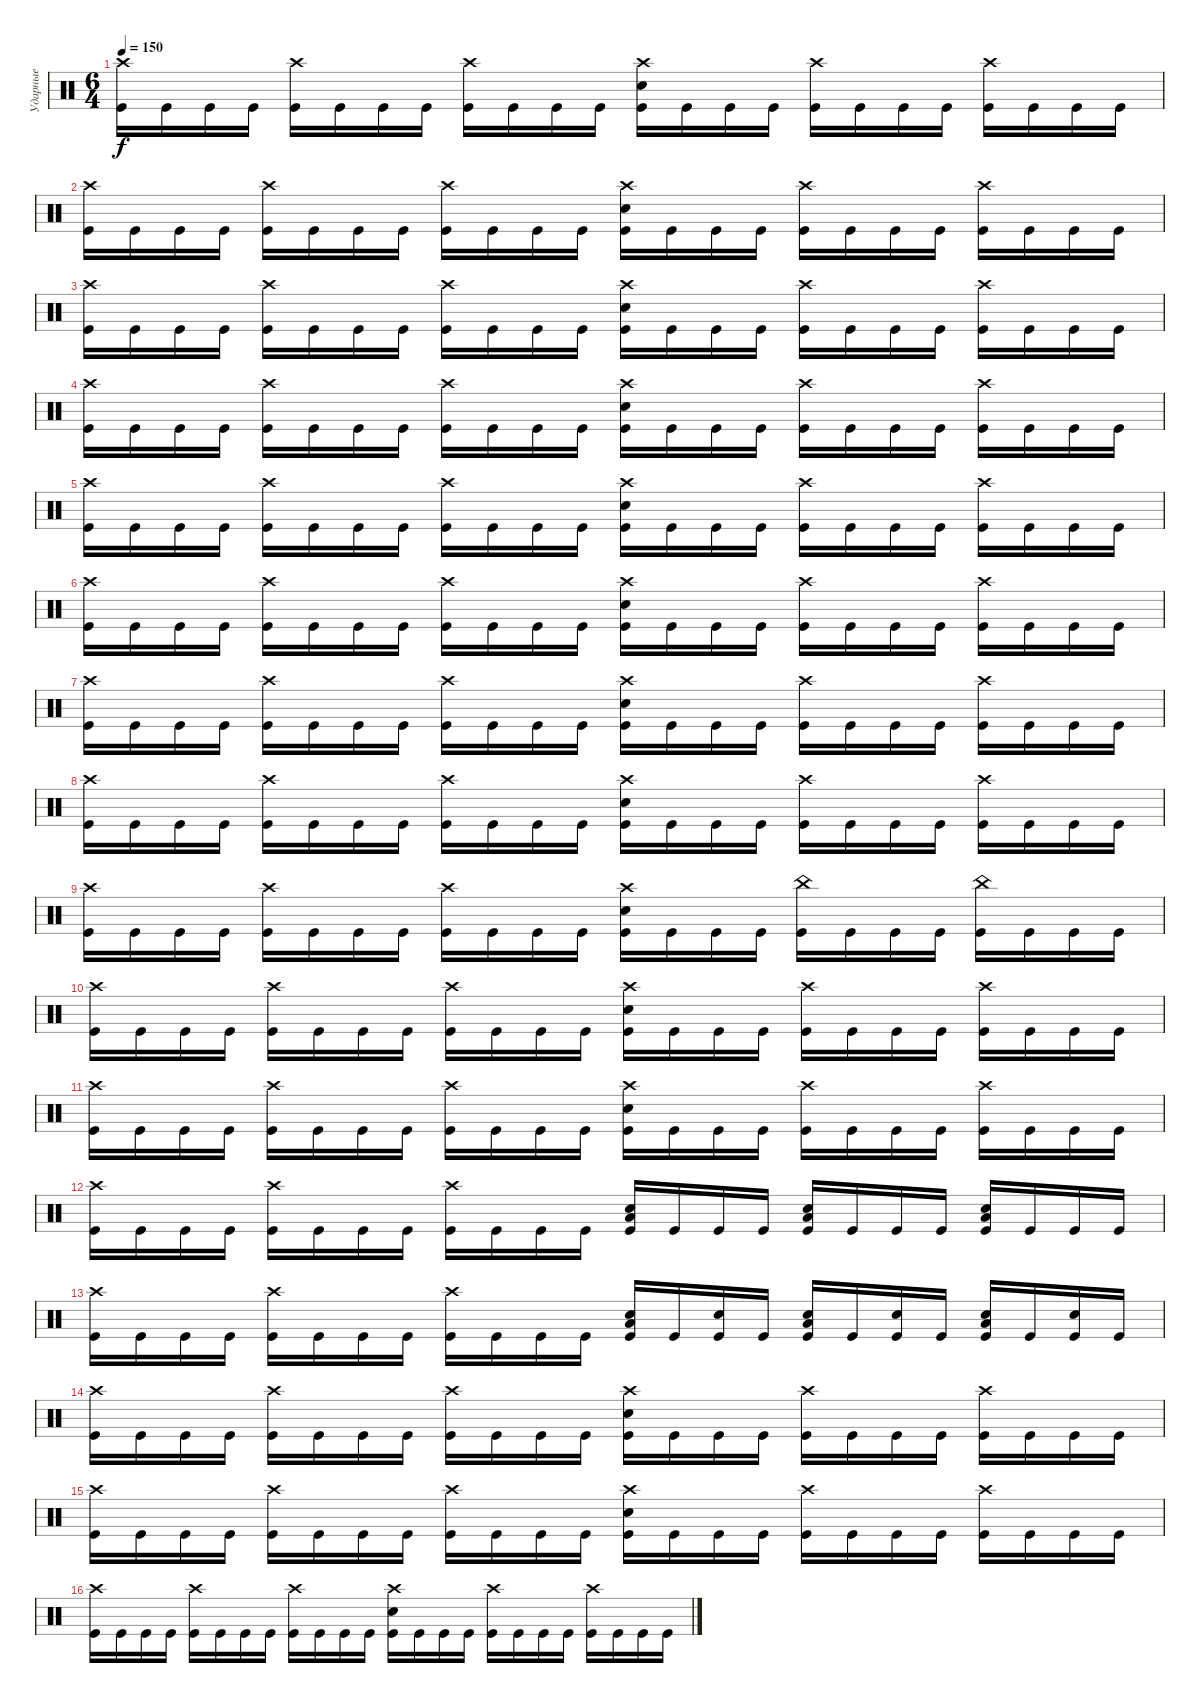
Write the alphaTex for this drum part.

\track ("Ударные" "Ударные") {instrument percussion}
\staff {score}
\articulation defaults
\ts (6 4)
\tempo 150
\clef neutral
\ks c
("Crash high (hit)" "Kick (hit)").16{dy f} "Kick (hit)".16 "Kick (hit)".16 "Kick (hit)".16 ("Crash high (hit)" "Kick (hit)").16 "Kick (hit)".16 "Kick (hit)".16 "Kick (hit)".16 ("Crash high (hit)" "Kick (hit)").16 "Kick (hit)".16 "Kick (hit)".16 "Kick (hit)".16 ("Crash high (hit)" "Snare (hit) 2" "Kick (hit)").16 "Kick (hit)".16 "Kick (hit)".16 "Kick (hit)".16 ("Crash high (hit)" "Kick (hit)").16 "Kick (hit)".16 "Kick (hit)".16 "Kick (hit)".16 ("Crash high (hit)" "Kick (hit)").16 "Kick (hit)".16 "Kick (hit)".16 "Kick (hit)".16 |
("Crash high (hit)" "Kick (hit)").16 "Kick (hit)".16 "Kick (hit)".16 "Kick (hit)".16 ("Crash high (hit)" "Kick (hit)").16 "Kick (hit)".16 "Kick (hit)".16 "Kick (hit)".16 ("Crash high (hit)" "Kick (hit)").16 "Kick (hit)".16 "Kick (hit)".16 "Kick (hit)".16 ("Crash high (hit)" "Snare (hit) 2" "Kick (hit)").16 "Kick (hit)".16 "Kick (hit)".16 "Kick (hit)".16 ("Crash high (hit)" "Kick (hit)").16 "Kick (hit)".16 "Kick (hit)".16 "Kick (hit)".16 ("Crash high (hit)" "Kick (hit)").16 "Kick (hit)".16 "Kick (hit)".16 "Kick (hit)".16 |
("Crash high (hit)" "Kick (hit)").16 "Kick (hit)".16 "Kick (hit)".16 "Kick (hit)".16 ("Crash high (hit)" "Kick (hit)").16 "Kick (hit)".16 "Kick (hit)".16 "Kick (hit)".16 ("Crash high (hit)" "Kick (hit)").16 "Kick (hit)".16 "Kick (hit)".16 "Kick (hit)".16 ("Crash high (hit)" "Snare (hit) 2" "Kick (hit)").16 "Kick (hit)".16 "Kick (hit)".16 "Kick (hit)".16 ("Crash high (hit)" "Kick (hit)").16 "Kick (hit)".16 "Kick (hit)".16 "Kick (hit)".16 ("Crash high (hit)" "Kick (hit)").16 "Kick (hit)".16 "Kick (hit)".16 "Kick (hit)".16 |
("Crash high (hit)" "Kick (hit)").16 "Kick (hit)".16 "Kick (hit)".16 "Kick (hit)".16 ("Crash high (hit)" "Kick (hit)").16 "Kick (hit)".16 "Kick (hit)".16 "Kick (hit)".16 ("Crash high (hit)" "Kick (hit)").16 "Kick (hit)".16 "Kick (hit)".16 "Kick (hit)".16 ("Crash high (hit)" "Snare (hit) 2" "Kick (hit)").16 "Kick (hit)".16 "Kick (hit)".16 "Kick (hit)".16 ("Crash high (hit)" "Kick (hit)").16 "Kick (hit)".16 "Kick (hit)".16 "Kick (hit)".16 ("Crash high (hit)" "Kick (hit)").16 "Kick (hit)".16 "Kick (hit)".16 "Kick (hit)".16 |
("Crash high (hit)" "Kick (hit)").16 "Kick (hit)".16 "Kick (hit)".16 "Kick (hit)".16 ("Crash high (hit)" "Kick (hit)").16 "Kick (hit)".16 "Kick (hit)".16 "Kick (hit)".16 ("Crash high (hit)" "Kick (hit)").16 "Kick (hit)".16 "Kick (hit)".16 "Kick (hit)".16 ("Crash high (hit)" "Snare (hit) 2" "Kick (hit)").16 "Kick (hit)".16 "Kick (hit)".16 "Kick (hit)".16 ("Crash high (hit)" "Kick (hit)").16 "Kick (hit)".16 "Kick (hit)".16 "Kick (hit)".16 ("Crash high (hit)" "Kick (hit)").16 "Kick (hit)".16 "Kick (hit)".16 "Kick (hit)".16 |
("Crash high (hit)" "Kick (hit)").16 "Kick (hit)".16 "Kick (hit)".16 "Kick (hit)".16 ("Crash high (hit)" "Kick (hit)").16 "Kick (hit)".16 "Kick (hit)".16 "Kick (hit)".16 ("Crash high (hit)" "Kick (hit)").16 "Kick (hit)".16 "Kick (hit)".16 "Kick (hit)".16 ("Crash high (hit)" "Snare (hit) 2" "Kick (hit)").16 "Kick (hit)".16 "Kick (hit)".16 "Kick (hit)".16 ("Crash high (hit)" "Kick (hit)").16 "Kick (hit)".16 "Kick (hit)".16 "Kick (hit)".16 ("Crash high (hit)" "Kick (hit)").16 "Kick (hit)".16 "Kick (hit)".16 "Kick (hit)".16 |
("Crash high (hit)" "Kick (hit)").16 "Kick (hit)".16 "Kick (hit)".16 "Kick (hit)".16 ("Crash high (hit)" "Kick (hit)").16 "Kick (hit)".16 "Kick (hit)".16 "Kick (hit)".16 ("Crash high (hit)" "Kick (hit)").16 "Kick (hit)".16 "Kick (hit)".16 "Kick (hit)".16 ("Crash high (hit)" "Snare (hit) 2" "Kick (hit)").16 "Kick (hit)".16 "Kick (hit)".16 "Kick (hit)".16 ("Crash high (hit)" "Kick (hit)").16 "Kick (hit)".16 "Kick (hit)".16 "Kick (hit)".16 ("Crash high (hit)" "Kick (hit)").16 "Kick (hit)".16 "Kick (hit)".16 "Kick (hit)".16 |
("Crash high (hit)" "Kick (hit)").16 "Kick (hit)".16 "Kick (hit)".16 "Kick (hit)".16 ("Crash high (hit)" "Kick (hit)").16 "Kick (hit)".16 "Kick (hit)".16 "Kick (hit)".16 ("Crash high (hit)" "Kick (hit)").16 "Kick (hit)".16 "Kick (hit)".16 "Kick (hit)".16 ("Crash high (hit)" "Snare (hit) 2" "Kick (hit)").16 "Kick (hit)".16 "Kick (hit)".16 "Kick (hit)".16 ("Crash high (hit)" "Kick (hit)").16 "Kick (hit)".16 "Kick (hit)".16 "Kick (hit)".16 ("Crash high (hit)" "Kick (hit)").16 "Kick (hit)".16 "Kick (hit)".16 "Kick (hit)".16 |
("Crash high (hit)" "Kick (hit)").16 "Kick (hit)".16 "Kick (hit)".16 "Kick (hit)".16 ("Crash high (hit)" "Kick (hit)").16 "Kick (hit)".16 "Kick (hit)".16 "Kick (hit)".16 ("Crash high (hit)" "Kick (hit)").16 "Kick (hit)".16 "Kick (hit)".16 "Kick (hit)".16 ("Crash high (hit)" "Snare (hit) 2" "Kick (hit)").16 "Kick (hit)".16 "Kick (hit)".16 "Kick (hit)".16 ("China (hit)" "Kick (hit)").16 "Kick (hit)".16 "Kick (hit)".16 "Kick (hit)".16 ("China (hit)" "Kick (hit)").16 "Kick (hit)".16 "Kick (hit)".16 "Kick (hit)".16 |
("Crash high (hit)" "Kick (hit)").16 "Kick (hit)".16 "Kick (hit)".16 "Kick (hit)".16 ("Crash high (hit)" "Kick (hit)").16 "Kick (hit)".16 "Kick (hit)".16 "Kick (hit)".16 ("Crash high (hit)" "Kick (hit)").16 "Kick (hit)".16 "Kick (hit)".16 "Kick (hit)".16 ("Crash high (hit)" "Snare (hit) 2" "Kick (hit)").16 "Kick (hit)".16 "Kick (hit)".16 "Kick (hit)".16 ("Crash high (hit)" "Kick (hit)").16 "Kick (hit)".16 "Kick (hit)".16 "Kick (hit)".16 ("Crash high (hit)" "Kick (hit)").16 "Kick (hit)".16 "Kick (hit)".16 "Kick (hit)".16 |
("Crash high (hit)" "Kick (hit)").16 "Kick (hit)".16 "Kick (hit)".16 "Kick (hit)".16 ("Crash high (hit)" "Kick (hit)").16 "Kick (hit)".16 "Kick (hit)".16 "Kick (hit)".16 ("Crash high (hit)" "Kick (hit)").16 "Kick (hit)".16 "Kick (hit)".16 "Kick (hit)".16 ("Crash high (hit)" "Snare (hit) 2" "Kick (hit)").16 "Kick (hit)".16 "Kick (hit)".16 "Kick (hit)".16 ("Crash high (hit)" "Kick (hit)").16 "Kick (hit)".16 "Kick (hit)".16 "Kick (hit)".16 ("Crash high (hit)" "Kick (hit)").16 "Kick (hit)".16 "Kick (hit)".16 "Kick (hit)".16 |
("Crash high (hit)" "Kick (hit)").16 "Kick (hit)".16 "Kick (hit)".16 "Kick (hit)".16 ("Crash high (hit)" "Kick (hit)").16 "Kick (hit)".16 "Kick (hit)".16 "Kick (hit)".16 ("Crash high (hit)" "Kick (hit)").16 "Kick (hit)".16 "Kick (hit)".16 "Kick (hit)".16 ("Low Floor Tom (hit)" "Snare (hit) 2" "Kick (hit)").16 "Kick (hit)".16 "Kick (hit)".16 "Kick (hit)".16 ("Low Floor Tom (hit)" "Snare (hit) 2" "Kick (hit)").16 "Kick (hit)".16 "Kick (hit)".16 "Kick (hit)".16 ("Low Floor Tom (hit)" "Snare (hit) 2" "Kick (hit)").16 "Kick (hit)".16 "Kick (hit)".16 "Kick (hit)".16 |
("Crash high (hit)" "Kick (hit)").16 "Kick (hit)".16 "Kick (hit)".16 "Kick (hit)".16 ("Crash high (hit)" "Kick (hit)").16 "Kick (hit)".16 "Kick (hit)".16 "Kick (hit)".16 ("Crash high (hit)" "Kick (hit)").16 "Kick (hit)".16 "Kick (hit)".16 "Kick (hit)".16 ("Low Floor Tom (hit)" "Snare (hit) 2" "Kick (hit)").16 "Kick (hit)".16 ("Snare (hit) 2" "Kick (hit)").16 "Kick (hit)".16 ("Low Floor Tom (hit)" "Snare (hit) 2" "Kick (hit)").16 "Kick (hit)".16 ("Snare (hit) 2" "Kick (hit)").16 "Kick (hit)".16 ("Low Floor Tom (hit)" "Snare (hit) 2" "Kick (hit)").16 "Kick (hit)".16 ("Snare (hit) 2" "Kick (hit)").16 "Kick (hit)".16 |
("Crash high (hit)" "Kick (hit)").16 "Kick (hit)".16 "Kick (hit)".16 "Kick (hit)".16 ("Crash high (hit)" "Kick (hit)").16 "Kick (hit)".16 "Kick (hit)".16 "Kick (hit)".16 ("Crash high (hit)" "Kick (hit)").16 "Kick (hit)".16 "Kick (hit)".16 "Kick (hit)".16 ("Crash high (hit)" "Snare (hit) 2" "Kick (hit)").16 "Kick (hit)".16 "Kick (hit)".16 "Kick (hit)".16 ("Crash high (hit)" "Kick (hit)").16 "Kick (hit)".16 "Kick (hit)".16 "Kick (hit)".16 ("Crash high (hit)" "Kick (hit)").16 "Kick (hit)".16 "Kick (hit)".16 "Kick (hit)".16 |
("Crash high (hit)" "Kick (hit)").16 "Kick (hit)".16 "Kick (hit)".16 "Kick (hit)".16 ("Crash high (hit)" "Kick (hit)").16 "Kick (hit)".16 "Kick (hit)".16 "Kick (hit)".16 ("Crash high (hit)" "Kick (hit)").16 "Kick (hit)".16 "Kick (hit)".16 "Kick (hit)".16 ("Crash high (hit)" "Snare (hit) 2" "Kick (hit)").16 "Kick (hit)".16 "Kick (hit)".16 "Kick (hit)".16 ("Crash high (hit)" "Kick (hit)").16 "Kick (hit)".16 "Kick (hit)".16 "Kick (hit)".16 ("Crash high (hit)" "Kick (hit)").16 "Kick (hit)".16 "Kick (hit)".16 "Kick (hit)".16 |
("Crash high (hit)" "Kick (hit)").16 "Kick (hit)".16 "Kick (hit)".16 "Kick (hit)".16 ("Crash high (hit)" "Kick (hit)").16 "Kick (hit)".16 "Kick (hit)".16 "Kick (hit)".16 ("Crash high (hit)" "Kick (hit)").16 "Kick (hit)".16 "Kick (hit)".16 "Kick (hit)".16 ("Crash high (hit)" "Snare (hit) 2" "Kick (hit)").16 "Kick (hit)".16 "Kick (hit)".16 "Kick (hit)".16 ("Crash high (hit)" "Kick (hit)").16 "Kick (hit)".16 "Kick (hit)".16 "Kick (hit)".16 ("Crash high (hit)" "Kick (hit)").16 "Kick (hit)".16 "Kick (hit)".16 "Kick (hit)".16
